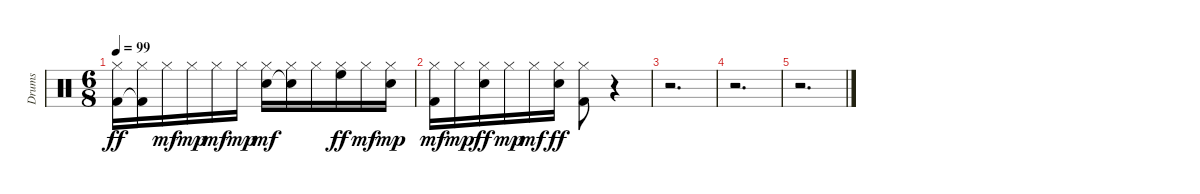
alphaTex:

\track ("Drums" "Drums") {instrument percussion}
\staff {score}
\articulation defaults
\ts (6 8)
\tempo 99
\clef neutral
\ks c
("Hi-Hat (closed)" "Kick (hit) 2").16{dy ff} ("Hi-Hat (closed)" "Kick (hit) 2"{t}).16 "Hi-Hat (closed)".16{dy mf} "Hi-Hat (closed)".16{dy mp} "Hi-Hat (closed)".16{dy mf} "Hi-Hat (closed)".16{dy mp} ("Hi-Hat (closed)" "Snare (hit) 2").16{dy mf} ("Hi-Hat (closed)" "Snare (hit) 2"{t}).16 "Hi-Hat (closed)".16 ("Hi-Hat (closed)" "High Floor Tom (hit)").16{dy ff} "Hi-Hat (closed)".16{dy mf} ("Hi-Hat (closed)" "Electric Snare (hit)").16{dy mp} |
("Hi-Hat (closed)" "Kick (hit) 2").16{dy mf} "Hi-Hat (closed)".16{dy mp} ("Hi-Hat (closed)" "Electric Snare (hit)").16{dy ff} "Hi-Hat (closed)".16{dy mp} "Hi-Hat (closed)".16{dy mf} ("Hi-Hat (closed)" "Electric Snare (hit)").16{dy ff} ("Hi-Hat (closed)" "Kick (hit) 2").8 r.4 |
r.2{d} |
r.2{d} |
r.2{d}
